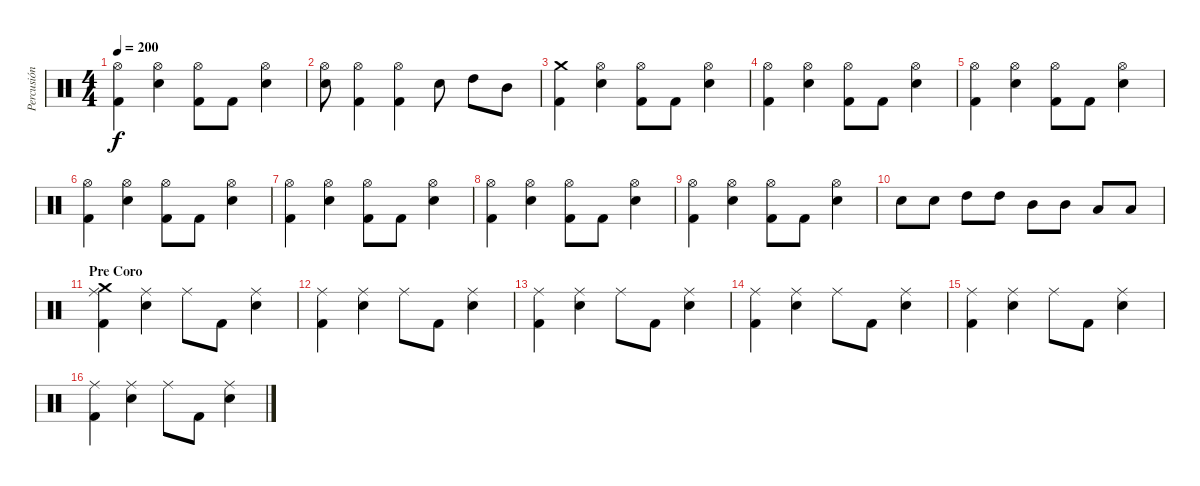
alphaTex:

\track ("Percusión" "Percusión") {instrument percussion}
\staff {score}
\articulation defaults
\ts (4 4)
\tempo 200
\clef neutral
\ks c
("Hi-Hat (open)" "Kick (hit) 2").4{dy f} ("Snare (hit) 2" "Hi-Hat (open)").4 ("Hi-Hat (open)" "Kick (hit) 2").8 "Kick (hit) 2".8 ("Snare (hit) 2" "Hi-Hat (open)").4 |
("Hi-Hat (open)" "Snare (hit) 2").8 ("Kick (hit) 2" "Hi-Hat (open)").4 ("Hi-Hat (open)" "Kick (hit) 2").4 "Snare (hit) 2".8 "High Tom (hit)".8 "Mid Tom (hit)".8 |
("Crash medium (hit)" "Kick (hit) 2").4 ("Snare (hit) 2" "Hi-Hat (open)").4 ("Hi-Hat (open)" "Kick (hit) 2").8 "Kick (hit) 2".8 ("Snare (hit) 2" "Hi-Hat (open)").4 |
("Hi-Hat (open)" "Kick (hit) 2").4 ("Snare (hit) 2" "Hi-Hat (open)").4 ("Hi-Hat (open)" "Kick (hit) 2").8 "Kick (hit) 2".8 ("Snare (hit) 2" "Hi-Hat (open)").4 |
("Hi-Hat (open)" "Kick (hit) 2").4 ("Snare (hit) 2" "Hi-Hat (open)").4 ("Hi-Hat (open)" "Kick (hit) 2").8 "Kick (hit) 2".8 ("Snare (hit) 2" "Hi-Hat (open)").4 |
("Hi-Hat (open)" "Kick (hit) 2").4 ("Snare (hit) 2" "Hi-Hat (open)").4 ("Hi-Hat (open)" "Kick (hit) 2").8 "Kick (hit) 2".8 ("Snare (hit) 2" "Hi-Hat (open)").4 |
("Hi-Hat (open)" "Kick (hit) 2").4 ("Snare (hit) 2" "Hi-Hat (open)").4 ("Hi-Hat (open)" "Kick (hit) 2").8 "Kick (hit) 2".8 ("Snare (hit) 2" "Hi-Hat (open)").4 |
("Hi-Hat (open)" "Kick (hit) 2").4 ("Snare (hit) 2" "Hi-Hat (open)").4 ("Hi-Hat (open)" "Kick (hit) 2").8 "Kick (hit) 2".8 ("Snare (hit) 2" "Hi-Hat (open)").4 |
("Hi-Hat (open)" "Kick (hit) 2").4 ("Snare (hit) 2" "Hi-Hat (open)").4 ("Hi-Hat (open)" "Kick (hit) 2").8 "Kick (hit) 2".8 ("Snare (hit) 2" "Hi-Hat (open)").4 |
"Snare (hit) 2".8 "Snare (hit) 2".8 "High Tom (hit)".8 "High Tom (hit)".8 "Mid Tom (hit)".8 "Mid Tom (hit)".8 "Low Tom (hit)".8 "Low Tom (hit)".8 |
\section ("" "Pre Coro")
("Crash medium (hit)" "Kick (hit) 2" "Ride (middle)").4 ("Ride (middle)" "Snare (hit) 2").4 "Ride (middle)".8 "Kick (hit) 2".8 ("Ride (middle)" "Snare (hit) 2").4 |
("Kick (hit) 2" "Ride (middle)").4 ("Ride (middle)" "Snare (hit) 2").4 "Ride (middle)".8 "Kick (hit) 2".8 ("Ride (middle)" "Snare (hit) 2").4 |
("Kick (hit) 2" "Ride (middle)").4 ("Ride (middle)" "Snare (hit) 2").4 "Ride (middle)".8 "Kick (hit) 2".8 ("Ride (middle)" "Snare (hit) 2").4 |
("Kick (hit) 2" "Ride (middle)").4 ("Ride (middle)" "Snare (hit) 2").4 "Ride (middle)".8 "Kick (hit) 2".8 ("Ride (middle)" "Snare (hit) 2").4 |
("Kick (hit) 2" "Ride (middle)").4 ("Ride (middle)" "Snare (hit) 2").4 "Ride (middle)".8 "Kick (hit) 2".8 ("Ride (middle)" "Snare (hit) 2").4 |
("Kick (hit) 2" "Ride (middle)").4 ("Ride (middle)" "Snare (hit) 2").4 "Ride (middle)".8 "Kick (hit) 2".8 ("Ride (middle)" "Snare (hit) 2").4
